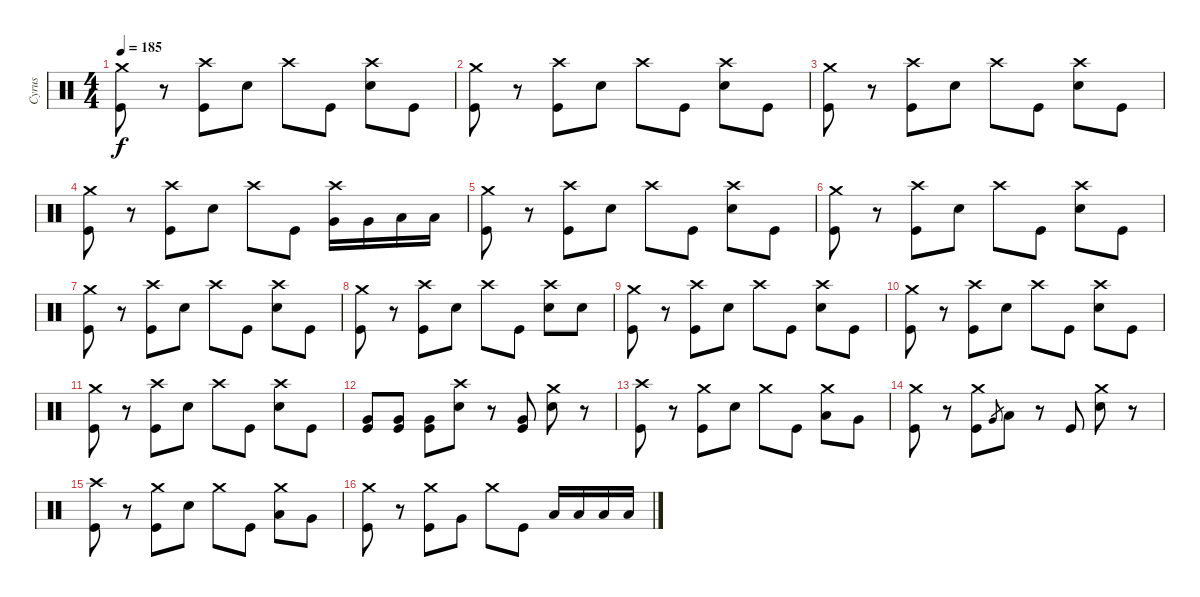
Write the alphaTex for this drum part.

\track ("Cyrus" "Cyrus") {instrument percussion}
\staff {score}
\articulation defaults
\ts (4 4)
\tempo 185
\clef neutral
\ks c
("Crash medium (hit)" "Kick (hit)").8{dy f} r.8 ("Crash high (hit)" "Kick (hit)").8 "Electric Snare (hit)".8 "Crash high (hit)".8 "Kick (hit)".8 ("Crash high (hit)" "Electric Snare (hit)").8 "Kick (hit)".8 |
("Crash medium (hit)" "Kick (hit)").8 r.8 ("Crash high (hit)" "Kick (hit)").8 "Electric Snare (hit)".8 "Crash high (hit)".8 "Kick (hit)".8 ("Crash high (hit)" "Electric Snare (hit)").8 "Kick (hit)".8 |
("Crash medium (hit)" "Kick (hit)").8 r.8 ("Crash high (hit)" "Kick (hit)").8 "Electric Snare (hit)".8 "Crash high (hit)".8 "Kick (hit)".8 ("Crash high (hit)" "Electric Snare (hit)").8 "Kick (hit)".8 |
("Crash medium (hit)" "Kick (hit)").8 r.8 ("Crash high (hit)" "Kick (hit)").8 "Electric Snare (hit)".8 "Crash high (hit)".8 "Kick (hit)".8 ("Crash high (hit)" "Very Low Tom (hit)").16 "Very Low Tom (hit)".16 "Low Floor Tom (hit)".16 "Low Floor Tom (hit)".16 |
("Crash medium (hit)" "Kick (hit)").8 r.8 ("Crash high (hit)" "Kick (hit)").8 "Electric Snare (hit)".8 "Crash high (hit)".8 "Kick (hit)".8 ("Crash high (hit)" "Electric Snare (hit)").8 "Kick (hit)".8 |
("Crash medium (hit)" "Kick (hit)").8 r.8 ("Crash high (hit)" "Kick (hit)").8 "Electric Snare (hit)".8 "Crash high (hit)".8 "Kick (hit)".8 ("Crash high (hit)" "Electric Snare (hit)").8 "Kick (hit)".8 |
("Crash medium (hit)" "Kick (hit)").8 r.8 ("Crash high (hit)" "Kick (hit)").8 "Electric Snare (hit)".8 "Crash high (hit)".8 "Kick (hit)".8 ("Crash high (hit)" "Electric Snare (hit)").8 "Kick (hit)".8 |
("Crash medium (hit)" "Kick (hit)").8 r.8 ("Crash high (hit)" "Kick (hit)").8 "Electric Snare (hit)".8 "Crash high (hit)".8 "Kick (hit)".8 ("Crash high (hit)" "Electric Snare (hit)").8 "Electric Snare (hit)".8 |
("Crash medium (hit)" "Kick (hit)").8 r.8 ("Crash high (hit)" "Kick (hit)").8 "Electric Snare (hit)".8 "Crash high (hit)".8 "Kick (hit)".8 ("Crash high (hit)" "Electric Snare (hit)").8 "Kick (hit)".8 |
("Crash medium (hit)" "Kick (hit)").8 r.8 ("Crash high (hit)" "Kick (hit)").8 "Electric Snare (hit)".8 "Crash high (hit)".8 "Kick (hit)".8 ("Crash high (hit)" "Electric Snare (hit)").8 "Kick (hit)".8 |
("Crash medium (hit)" "Kick (hit)").8 r.8 ("Crash high (hit)" "Kick (hit)").8 "Electric Snare (hit)".8 "Crash high (hit)".8 "Kick (hit)".8 ("Crash high (hit)" "Electric Snare (hit)").8 "Kick (hit)".8 |
("Very Low Tom (hit)" "Kick (hit)").8 ("Very Low Tom (hit)" "Kick (hit)").8 ("Very Low Tom (hit)" "Kick (hit)").8 ("Crash high (hit)" "Electric Snare (hit)").8 r.8 ("Very Low Tom (hit)" "Kick (hit)").8 ("Crash medium (hit)" "Electric Snare (hit)").8 r.8 |
("Crash high (hit)" "Kick (hit)").8 r.8 ("Crash medium (hit)" "Kick (hit)").8 "Electric Snare (hit)".8 "Crash medium (hit)".8 "Kick (hit)".8 ("Crash medium (hit)" "Low Tom (hit)").8 "Very Low Tom (hit)".8 |
("Crash medium (hit)" "Kick (hit)").8 r.8 ("Crash medium (hit)" "Kick (hit)").8 "Very Low Tom (hit)".8{gr} "Low Tom (hit)".8 r.8 "Kick (hit)".8 ("Crash medium (hit)" "Electric Snare (hit)").8 r.8 |
("Crash high (hit)" "Kick (hit)").8 r.8 ("Crash medium (hit)" "Kick (hit)").8 "Electric Snare (hit)".8 "Crash medium (hit)".8 "Kick (hit)".8 ("Crash medium (hit)" "Low Tom (hit)").8 "Very Low Tom (hit)".8 |
("Crash medium (hit)" "Kick (hit)").8 r.8 ("Crash medium (hit)" "Kick (hit)").8 "Very Low Tom (hit)".8 "Crash medium (hit)".8 "Kick (hit)".8 "Low Floor Tom (hit)".16 "Low Floor Tom (hit)".16 "Low Floor Tom (hit)".16 "Low Floor Tom (hit)".16
